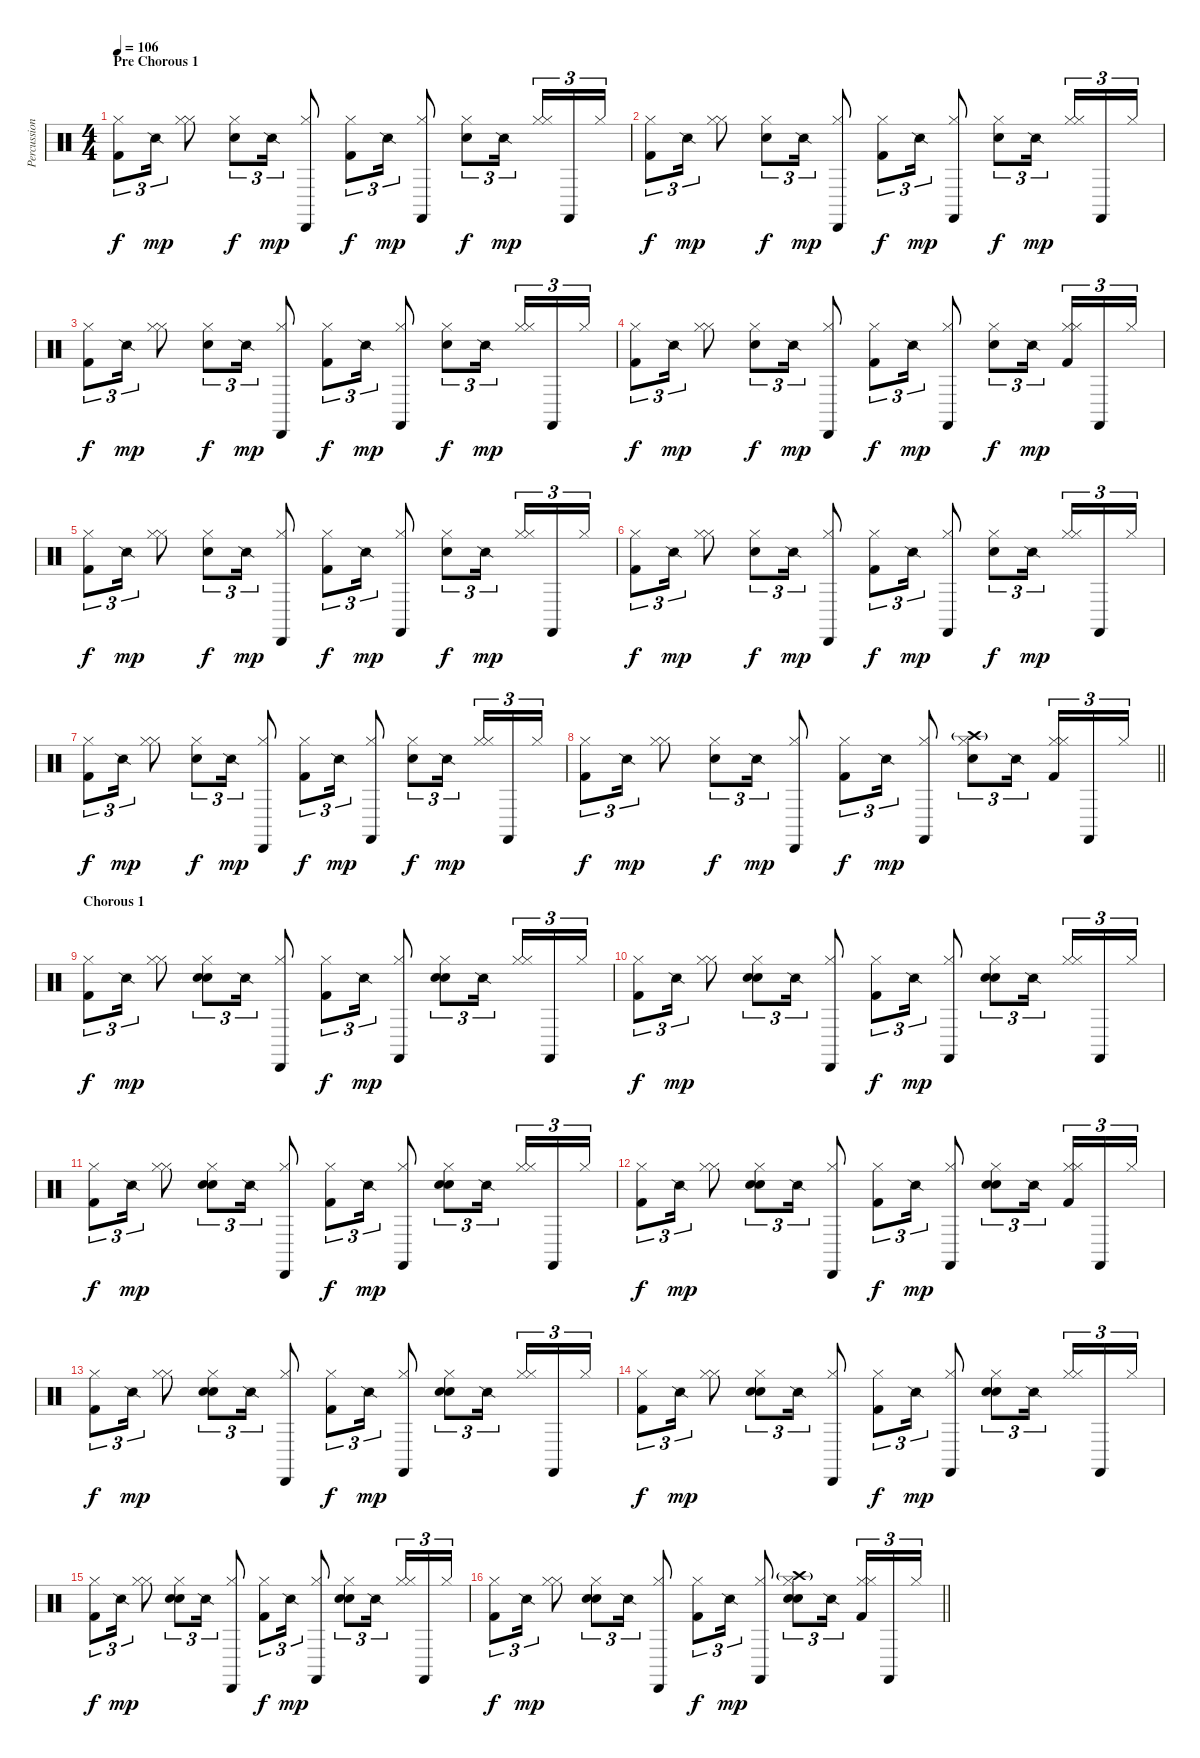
\track ("Percussion" "Percussion") {instrument percussion}
\staff {score}
\articulation defaults
\ts (4 4)
\section ("" "Pre Chorous 1")
\tempo 106
\clef neutral
\ks c
("Hi-Hat (closed)" "Kick (hit) 2").8{tu (3 2) dy f} "Snare (side stick) 2".16{tu (3 2) dy mp} ("Hi-Hat (closed)" "Hi-Hat (closed)").8 ("Hi-Hat (closed)" "Electric Snare (hit)").8{tu (3 2) dy f} "Snare (side stick) 2".16{tu (3 2) dy mp} ("Hi-Hat (closed)" "Cabasa (hit)").8 ("Hi-Hat (closed)" "Kick (hit) 2").8{tu (3 2) dy f} "Snare (side stick) 2".16{tu (3 2) dy mp} ("Hi-Hat (closed)" "Castanets (hit)").8 ("Hi-Hat (closed)" "Electric Snare (hit)").8{tu (3 2) dy f} "Snare (side stick) 2".16{tu (3 2) dy mp beam splitsecondary} ("Hi-Hat (closed)" "Hi-Hat (closed)").16{tu (3 2)} "Castanets (hit)".16{tu (3 2)} "Hi-Hat (closed)".16{tu (3 2)} |
("Hi-Hat (closed)" "Kick (hit) 2").8{tu (3 2) dy f} "Snare (side stick) 2".16{tu (3 2) dy mp} ("Hi-Hat (closed)" "Hi-Hat (closed)").8 ("Hi-Hat (closed)" "Electric Snare (hit)").8{tu (3 2) dy f} "Snare (side stick) 2".16{tu (3 2) dy mp} ("Hi-Hat (closed)" "Cabasa (hit)").8 ("Hi-Hat (closed)" "Kick (hit) 2").8{tu (3 2) dy f} "Snare (side stick) 2".16{tu (3 2) dy mp} ("Hi-Hat (closed)" "Castanets (hit)").8 ("Hi-Hat (closed)" "Electric Snare (hit)").8{tu (3 2) dy f} "Snare (side stick) 2".16{tu (3 2) dy mp beam splitsecondary} ("Hi-Hat (closed)" "Hi-Hat (closed)").16{tu (3 2)} "Castanets (hit)".16{tu (3 2)} "Hi-Hat (closed)".16{tu (3 2)} |
("Hi-Hat (closed)" "Kick (hit) 2").8{tu (3 2) dy f} "Snare (side stick) 2".16{tu (3 2) dy mp} ("Hi-Hat (closed)" "Hi-Hat (closed)").8 ("Hi-Hat (closed)" "Electric Snare (hit)").8{tu (3 2) dy f} "Snare (side stick) 2".16{tu (3 2) dy mp} ("Hi-Hat (closed)" "Cabasa (hit)").8 ("Hi-Hat (closed)" "Kick (hit) 2").8{tu (3 2) dy f} "Snare (side stick) 2".16{tu (3 2) dy mp} ("Hi-Hat (closed)" "Castanets (hit)").8 ("Hi-Hat (closed)" "Electric Snare (hit)").8{tu (3 2) dy f} "Snare (side stick) 2".16{tu (3 2) dy mp beam splitsecondary} ("Hi-Hat (closed)" "Hi-Hat (closed)").16{tu (3 2)} "Castanets (hit)".16{tu (3 2)} "Hi-Hat (closed)".16{tu (3 2)} |
("Hi-Hat (closed)" "Kick (hit) 2").8{tu (3 2) dy f} "Snare (side stick) 2".16{tu (3 2) dy mp} ("Hi-Hat (closed)" "Hi-Hat (closed)").8 ("Hi-Hat (closed)" "Electric Snare (hit)").8{tu (3 2) dy f} "Snare (side stick) 2".16{tu (3 2) dy mp} ("Hi-Hat (closed)" "Cabasa (hit)").8 ("Hi-Hat (closed)" "Kick (hit) 2").8{tu (3 2) dy f} "Snare (side stick) 2".16{tu (3 2) dy mp} ("Hi-Hat (closed)" "Castanets (hit)").8 ("Hi-Hat (closed)" "Electric Snare (hit)").8{tu (3 2) dy f} "Snare (side stick) 2".16{tu (3 2) dy mp beam splitsecondary} ("Hi-Hat (closed)" "Hi-Hat (closed)" "Kick (hit) 2").16{tu (3 2)} "Castanets (hit)".16{tu (3 2)} "Hi-Hat (closed)".16{tu (3 2)} |
("Hi-Hat (closed)" "Kick (hit) 2").8{tu (3 2) dy f} "Snare (side stick) 2".16{tu (3 2) dy mp} ("Hi-Hat (closed)" "Hi-Hat (closed)").8 ("Hi-Hat (closed)" "Electric Snare (hit)").8{tu (3 2) dy f} "Snare (side stick) 2".16{tu (3 2) dy mp} ("Hi-Hat (closed)" "Cabasa (hit)").8 ("Hi-Hat (closed)" "Kick (hit) 2").8{tu (3 2) dy f} "Snare (side stick) 2".16{tu (3 2) dy mp} ("Hi-Hat (closed)" "Castanets (hit)").8 ("Hi-Hat (closed)" "Electric Snare (hit)").8{tu (3 2) dy f} "Snare (side stick) 2".16{tu (3 2) dy mp beam splitsecondary} ("Hi-Hat (closed)" "Hi-Hat (closed)").16{tu (3 2)} "Castanets (hit)".16{tu (3 2)} "Hi-Hat (closed)".16{tu (3 2)} |
("Hi-Hat (closed)" "Kick (hit) 2").8{tu (3 2) dy f} "Snare (side stick) 2".16{tu (3 2) dy mp} ("Hi-Hat (closed)" "Hi-Hat (closed)").8 ("Hi-Hat (closed)" "Electric Snare (hit)").8{tu (3 2) dy f} "Snare (side stick) 2".16{tu (3 2) dy mp} ("Hi-Hat (closed)" "Cabasa (hit)").8 ("Hi-Hat (closed)" "Kick (hit) 2").8{tu (3 2) dy f} "Snare (side stick) 2".16{tu (3 2) dy mp} ("Hi-Hat (closed)" "Castanets (hit)").8 ("Hi-Hat (closed)" "Electric Snare (hit)").8{tu (3 2) dy f} "Snare (side stick) 2".16{tu (3 2) dy mp beam splitsecondary} ("Hi-Hat (closed)" "Hi-Hat (closed)").16{tu (3 2)} "Castanets (hit)".16{tu (3 2)} "Hi-Hat (closed)".16{tu (3 2)} |
("Hi-Hat (closed)" "Kick (hit) 2").8{tu (3 2) dy f} "Snare (side stick) 2".16{tu (3 2) dy mp} ("Hi-Hat (closed)" "Hi-Hat (closed)").8 ("Hi-Hat (closed)" "Electric Snare (hit)").8{tu (3 2) dy f} "Snare (side stick) 2".16{tu (3 2) dy mp} ("Hi-Hat (closed)" "Cabasa (hit)").8 ("Hi-Hat (closed)" "Kick (hit) 2").8{tu (3 2) dy f} "Snare (side stick) 2".16{tu (3 2) dy mp} ("Hi-Hat (closed)" "Castanets (hit)").8 ("Hi-Hat (closed)" "Electric Snare (hit)").8{tu (3 2) dy f} "Snare (side stick) 2".16{tu (3 2) dy mp beam splitsecondary} ("Hi-Hat (closed)" "Hi-Hat (closed)").16{tu (3 2)} "Castanets (hit)".16{tu (3 2)} "Hi-Hat (closed)".16{tu (3 2)} |
\barLineRight lightlight
("Hi-Hat (closed)" "Kick (hit) 2").8{tu (3 2) dy f} "Snare (side stick) 2".16{tu (3 2) dy mp} ("Hi-Hat (closed)" "Hi-Hat (closed)").8 ("Hi-Hat (closed)" "Electric Snare (hit)").8{tu (3 2) dy f} "Snare (side stick) 2".16{tu (3 2) dy mp} ("Hi-Hat (closed)" "Cabasa (hit)").8 ("Hi-Hat (closed)" "Kick (hit) 2").8{tu (3 2) dy f} "Snare (side stick) 2".16{tu (3 2) dy mp} ("Hi-Hat (closed)" "Castanets (hit)").8 ("Crash high (hit)"{g} "Hi-Hat (closed)" "Electric Snare (hit)").8{tu (3 2)} "Snare (side stick) 2".16{tu (3 2) beam splitsecondary} ("Hi-Hat (closed)" "Hi-Hat (closed)" "Kick (hit) 2").16{tu (3 2)} "Castanets (hit)".16{tu (3 2)} "Hi-Hat (closed)".16{tu (3 2)} |
\section ("" "Chorous 1")
("Hi-Hat (closed)" "Kick (hit) 2").8{tu (3 2) dy f} "Snare (side stick) 2".16{tu (3 2) dy mp} ("Hi-Hat (closed)" "Hi-Hat (closed)").8 ("Hand Clap (hit)" "Hi-Hat (closed)" "Electric Snare (hit)").8{tu (3 2)} "Snare (side stick) 2".16{tu (3 2)} ("Hi-Hat (closed)" "Cabasa (hit)").8 ("Hi-Hat (closed)" "Kick (hit) 2").8{tu (3 2) dy f} "Snare (side stick) 2".16{tu (3 2) dy mp} ("Hi-Hat (closed)" "Castanets (hit)").8 ("Hand Clap (hit)" "Hi-Hat (closed)" "Electric Snare (hit)").8{tu (3 2)} "Snare (side stick) 2".16{tu (3 2) beam splitsecondary} ("Hi-Hat (closed)" "Hi-Hat (closed)").16{tu (3 2)} "Castanets (hit)".16{tu (3 2)} "Hi-Hat (closed)".16{tu (3 2)} |
("Hi-Hat (closed)" "Kick (hit) 2").8{tu (3 2) dy f} "Snare (side stick) 2".16{tu (3 2) dy mp} ("Hi-Hat (closed)" "Hi-Hat (closed)").8 ("Hand Clap (hit)" "Hi-Hat (closed)" "Electric Snare (hit)").8{tu (3 2)} "Snare (side stick) 2".16{tu (3 2)} ("Hi-Hat (closed)" "Cabasa (hit)").8 ("Hi-Hat (closed)" "Kick (hit) 2").8{tu (3 2) dy f} "Snare (side stick) 2".16{tu (3 2) dy mp} ("Hi-Hat (closed)" "Castanets (hit)").8 ("Hand Clap (hit)" "Hi-Hat (closed)" "Electric Snare (hit)").8{tu (3 2)} "Snare (side stick) 2".16{tu (3 2) beam splitsecondary} ("Hi-Hat (closed)" "Hi-Hat (closed)").16{tu (3 2)} "Castanets (hit)".16{tu (3 2)} "Hi-Hat (closed)".16{tu (3 2)} |
("Hi-Hat (closed)" "Kick (hit) 2").8{tu (3 2) dy f} "Snare (side stick) 2".16{tu (3 2) dy mp} ("Hi-Hat (closed)" "Hi-Hat (closed)").8 ("Hand Clap (hit)" "Hi-Hat (closed)" "Electric Snare (hit)").8{tu (3 2)} "Snare (side stick) 2".16{tu (3 2)} ("Hi-Hat (closed)" "Cabasa (hit)").8 ("Hi-Hat (closed)" "Kick (hit) 2").8{tu (3 2) dy f} "Snare (side stick) 2".16{tu (3 2) dy mp} ("Hi-Hat (closed)" "Castanets (hit)").8 ("Hand Clap (hit)" "Hi-Hat (closed)" "Electric Snare (hit)").8{tu (3 2)} "Snare (side stick) 2".16{tu (3 2) beam splitsecondary} ("Hi-Hat (closed)" "Hi-Hat (closed)").16{tu (3 2)} "Castanets (hit)".16{tu (3 2)} "Hi-Hat (closed)".16{tu (3 2)} |
("Hi-Hat (closed)" "Kick (hit) 2").8{tu (3 2) dy f} "Snare (side stick) 2".16{tu (3 2) dy mp} ("Hi-Hat (closed)" "Hi-Hat (closed)").8 ("Hand Clap (hit)" "Hi-Hat (closed)" "Electric Snare (hit)").8{tu (3 2)} "Snare (side stick) 2".16{tu (3 2)} ("Hi-Hat (closed)" "Cabasa (hit)").8 ("Hi-Hat (closed)" "Kick (hit) 2").8{tu (3 2) dy f} "Snare (side stick) 2".16{tu (3 2) dy mp} ("Hi-Hat (closed)" "Castanets (hit)").8 ("Hand Clap (hit)" "Hi-Hat (closed)" "Electric Snare (hit)").8{tu (3 2)} "Snare (side stick) 2".16{tu (3 2) beam splitsecondary} ("Hi-Hat (closed)" "Hi-Hat (closed)" "Kick (hit) 2").16{tu (3 2)} "Castanets (hit)".16{tu (3 2)} "Hi-Hat (closed)".16{tu (3 2)} |
("Hi-Hat (closed)" "Kick (hit) 2").8{tu (3 2) dy f} "Snare (side stick) 2".16{tu (3 2) dy mp} ("Hi-Hat (closed)" "Hi-Hat (closed)").8 ("Hand Clap (hit)" "Hi-Hat (closed)" "Electric Snare (hit)").8{tu (3 2)} "Snare (side stick) 2".16{tu (3 2)} ("Hi-Hat (closed)" "Cabasa (hit)").8 ("Hi-Hat (closed)" "Kick (hit) 2").8{tu (3 2) dy f} "Snare (side stick) 2".16{tu (3 2) dy mp} ("Hi-Hat (closed)" "Castanets (hit)").8 ("Hand Clap (hit)" "Hi-Hat (closed)" "Electric Snare (hit)").8{tu (3 2)} "Snare (side stick) 2".16{tu (3 2) beam splitsecondary} ("Hi-Hat (closed)" "Hi-Hat (closed)").16{tu (3 2)} "Castanets (hit)".16{tu (3 2)} "Hi-Hat (closed)".16{tu (3 2)} |
("Hi-Hat (closed)" "Kick (hit) 2").8{tu (3 2) dy f} "Snare (side stick) 2".16{tu (3 2) dy mp} ("Hi-Hat (closed)" "Hi-Hat (closed)").8 ("Hand Clap (hit)" "Hi-Hat (closed)" "Electric Snare (hit)").8{tu (3 2)} "Snare (side stick) 2".16{tu (3 2)} ("Hi-Hat (closed)" "Cabasa (hit)").8 ("Hi-Hat (closed)" "Kick (hit) 2").8{tu (3 2) dy f} "Snare (side stick) 2".16{tu (3 2) dy mp} ("Hi-Hat (closed)" "Castanets (hit)").8 ("Hand Clap (hit)" "Hi-Hat (closed)" "Electric Snare (hit)").8{tu (3 2)} "Snare (side stick) 2".16{tu (3 2) beam splitsecondary} ("Hi-Hat (closed)" "Hi-Hat (closed)").16{tu (3 2)} "Castanets (hit)".16{tu (3 2)} "Hi-Hat (closed)".16{tu (3 2)} |
("Hi-Hat (closed)" "Kick (hit) 2").8{tu (3 2) dy f} "Snare (side stick) 2".16{tu (3 2) dy mp} ("Hi-Hat (closed)" "Hi-Hat (closed)").8 ("Hand Clap (hit)" "Hi-Hat (closed)" "Electric Snare (hit)").8{tu (3 2)} "Snare (side stick) 2".16{tu (3 2)} ("Hi-Hat (closed)" "Cabasa (hit)").8 ("Hi-Hat (closed)" "Kick (hit) 2").8{tu (3 2) dy f} "Snare (side stick) 2".16{tu (3 2) dy mp} ("Hi-Hat (closed)" "Castanets (hit)").8 ("Hand Clap (hit)" "Hi-Hat (closed)" "Electric Snare (hit)").8{tu (3 2)} "Snare (side stick) 2".16{tu (3 2) beam splitsecondary} ("Hi-Hat (closed)" "Hi-Hat (closed)").16{tu (3 2)} "Castanets (hit)".16{tu (3 2)} "Hi-Hat (closed)".16{tu (3 2)} |
\barLineRight lightlight
("Hi-Hat (closed)" "Kick (hit) 2").8{tu (3 2) dy f} "Snare (side stick) 2".16{tu (3 2) dy mp} ("Hi-Hat (closed)" "Hi-Hat (closed)").8 ("Hand Clap (hit)" "Hi-Hat (closed)" "Electric Snare (hit)").8{tu (3 2)} "Snare (side stick) 2".16{tu (3 2)} ("Hi-Hat (closed)" "Cabasa (hit)").8 ("Hi-Hat (closed)" "Kick (hit) 2").8{tu (3 2) dy f} "Snare (side stick) 2".16{tu (3 2) dy mp} ("Hi-Hat (closed)" "Castanets (hit)").8 ("Crash high (hit)"{g} "Hi-Hat (closed)" "Electric Snare (hit)" "Hand Clap (hit)").8{tu (3 2)} "Snare (side stick) 2".16{tu (3 2) beam splitsecondary} ("Hi-Hat (closed)" "Hi-Hat (closed)" "Kick (hit) 2").16{tu (3 2)} "Castanets (hit)".16{tu (3 2)} "Hi-Hat (closed)".16{tu (3 2)}
